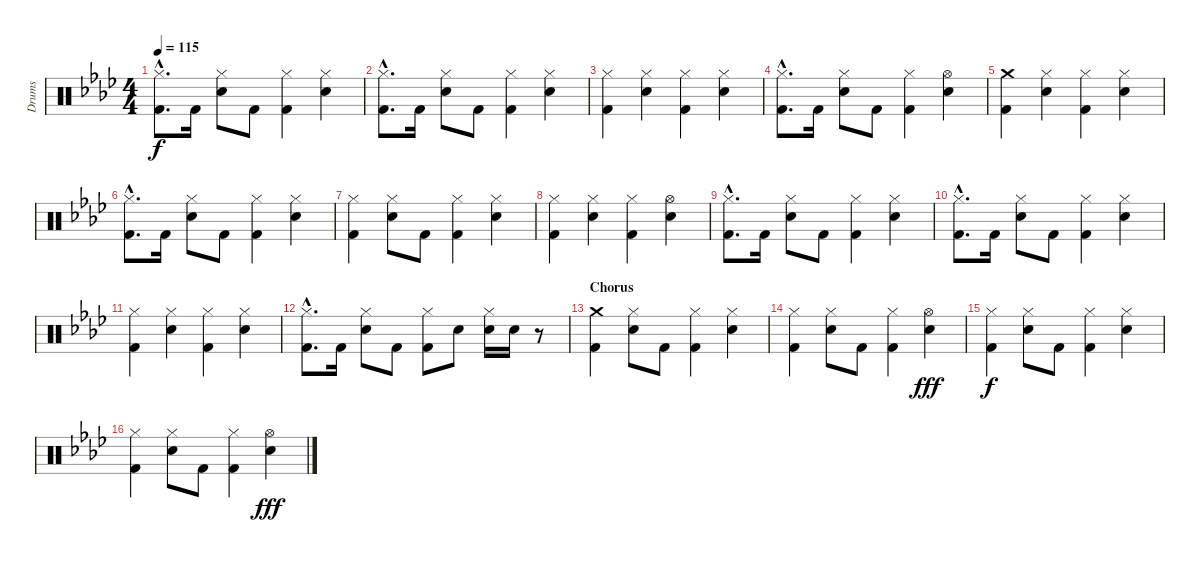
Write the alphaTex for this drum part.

\track ("Drums" "Drums") {instrument percussion}
\staff {score}
\articulation defaults
\ts (4 4)
\tempo 115
\clef neutral
\ks ab
("Hi-Hat (closed)"{hac} "Kick (hit) 2"{hac}).8{d dy f} "Kick (hit) 2".16 ("Hi-Hat (closed)" "Snare (hit) 2").8 "Kick (hit) 2".8 ("Hi-Hat (closed)" "Kick (hit) 2").4 ("Hi-Hat (closed)" "Snare (hit) 2").4 |
("Hi-Hat (closed)"{hac} "Kick (hit) 2"{hac}).8{d} "Kick (hit) 2".16 ("Hi-Hat (closed)" "Snare (hit) 2").8 "Kick (hit) 2".8 ("Hi-Hat (closed)" "Kick (hit) 2").4 ("Hi-Hat (closed)" "Snare (hit) 2").4 |
("Hi-Hat (closed)" "Kick (hit) 2").4 ("Hi-Hat (closed)" "Snare (hit) 2").4 ("Hi-Hat (closed)" "Kick (hit) 2").4 ("Hi-Hat (closed)" "Snare (hit) 2").4 |
("Hi-Hat (closed)"{hac} "Kick (hit) 2"{hac}).8{d} "Kick (hit) 2".16 ("Hi-Hat (closed)" "Snare (hit) 2").8 "Kick (hit) 2".8 ("Hi-Hat (closed)" "Kick (hit) 2").4 ("Hi-Hat (open)" "Snare (hit) 2").4 |
("Crash medium (hit)" "Kick (hit) 2").4 ("Hi-Hat (closed)" "Snare (hit) 2").4 ("Hi-Hat (closed)" "Kick (hit) 2").4 ("Hi-Hat (closed)" "Snare (hit) 2").4 |
("Hi-Hat (closed)"{hac} "Kick (hit) 2"{hac}).8{d} "Kick (hit) 2".16 ("Hi-Hat (closed)" "Snare (hit) 2").8 "Kick (hit) 2".8 ("Hi-Hat (closed)" "Kick (hit) 2").4 ("Hi-Hat (closed)" "Snare (hit) 2").4 |
("Hi-Hat (closed)" "Kick (hit) 2").4 ("Hi-Hat (closed)" "Snare (hit) 2").8 "Kick (hit) 2".8 ("Hi-Hat (closed)" "Kick (hit) 2").4 ("Hi-Hat (closed)" "Snare (hit) 2").4 |
("Hi-Hat (closed)" "Kick (hit) 2").4 ("Hi-Hat (closed)" "Snare (hit) 2").4 ("Hi-Hat (closed)" "Kick (hit) 2").4 ("Hi-Hat (open)" "Snare (hit) 2").4 |
("Hi-Hat (closed)"{hac} "Kick (hit) 2"{hac}).8{d} "Kick (hit) 2".16 ("Hi-Hat (closed)" "Snare (hit) 2").8 "Kick (hit) 2".8 ("Hi-Hat (closed)" "Kick (hit) 2").4 ("Hi-Hat (closed)" "Snare (hit) 2").4 |
("Hi-Hat (closed)"{hac} "Kick (hit) 2"{hac}).8{d} "Kick (hit) 2".16 ("Hi-Hat (closed)" "Snare (hit) 2").8 "Kick (hit) 2".8 ("Hi-Hat (closed)" "Kick (hit) 2").4 ("Hi-Hat (closed)" "Snare (hit) 2").4 |
("Hi-Hat (closed)" "Kick (hit) 2").4 ("Hi-Hat (closed)" "Snare (hit) 2").4 ("Hi-Hat (closed)" "Kick (hit) 2").4 ("Hi-Hat (closed)" "Snare (hit) 2").4 |
("Hi-Hat (closed)"{hac} "Kick (hit) 2"{hac}).8{d} "Kick (hit) 2".16 ("Hi-Hat (closed)" "Snare (hit) 2").8 "Kick (hit) 2".8 ("Hi-Hat (closed)" "Kick (hit) 2").8 "Snare (hit) 2".8 ("Hi-Hat (closed)" "Snare (hit) 2").16 "Snare (hit) 2".16 r.8 |
\section ("" "Chorus")
("Crash medium (hit)" "Kick (hit) 2").4 ("Hi-Hat (closed)" "Snare (hit) 2").8 "Kick (hit) 2".8 ("Hi-Hat (closed)" "Kick (hit) 2").4 ("Hi-Hat (closed)" "Snare (hit) 2").4 |
("Hi-Hat (closed)" "Kick (hit) 2").4 ("Hi-Hat (closed)" "Snare (hit) 2").8 "Kick (hit) 2".8 ("Hi-Hat (closed)" "Kick (hit) 2").4 ("Hi-Hat (open)" "Snare (hit) 2").4{dy fff} |
("Hi-Hat (closed)" "Kick (hit) 2").4{dy f} ("Hi-Hat (closed)" "Snare (hit) 2").8 "Kick (hit) 2".8 ("Hi-Hat (closed)" "Kick (hit) 2").4 ("Hi-Hat (closed)" "Snare (hit) 2").4 |
("Hi-Hat (closed)" "Kick (hit) 2").4 ("Hi-Hat (closed)" "Snare (hit) 2").8 "Kick (hit) 2".8 ("Hi-Hat (closed)" "Kick (hit) 2").4 ("Hi-Hat (open)" "Snare (hit) 2").4{dy fff}
